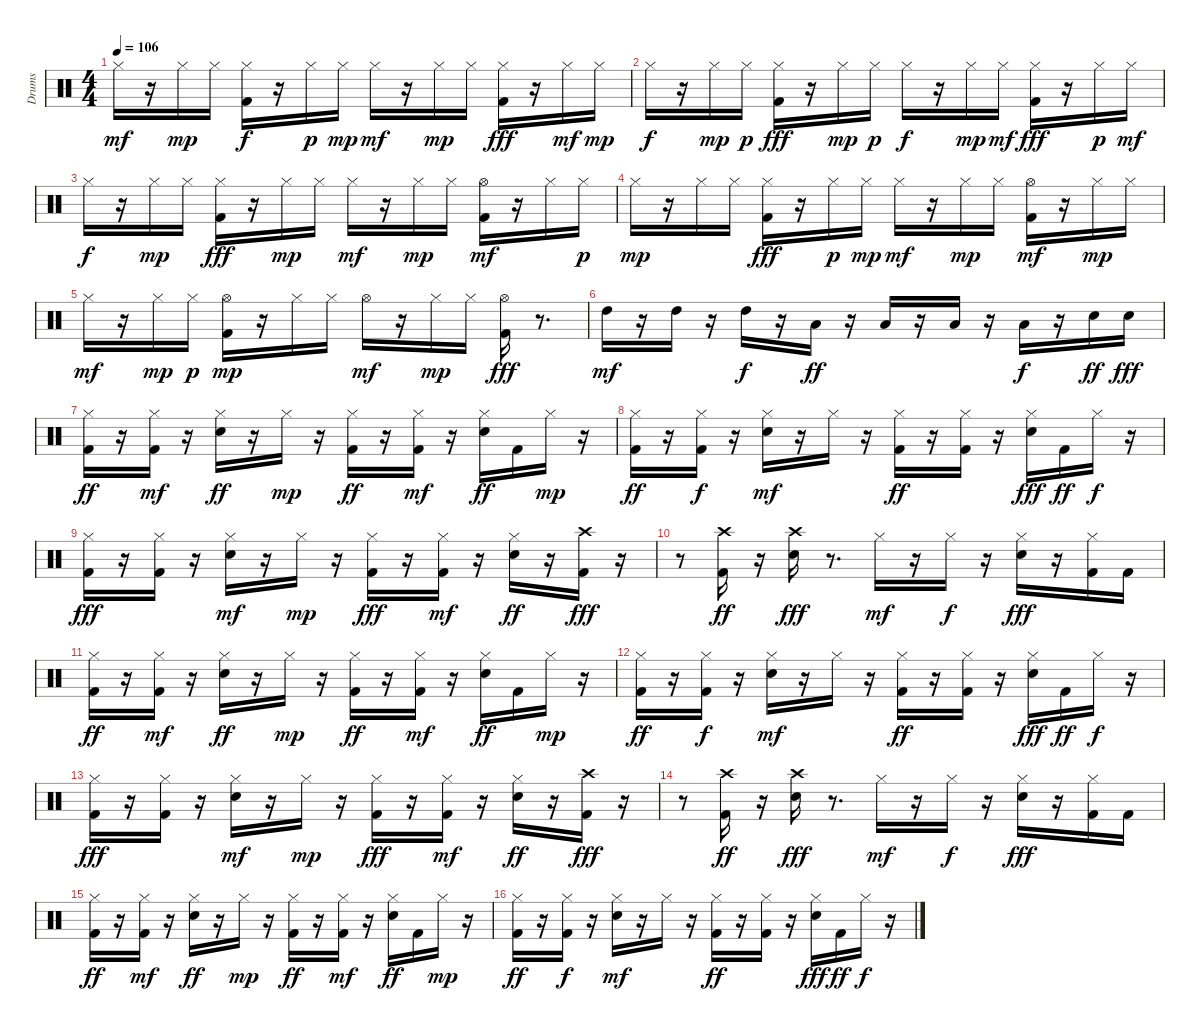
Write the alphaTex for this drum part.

\track ("Drums" "Drums") {instrument percussion}
\staff {score}
\articulation defaults
\ts (4 4)
\tempo 106
\clef neutral
\ks c "Hi-Hat (closed)".16{dy mf}
r.16 "Hi-Hat (closed)".16{dy mp} "Hi-Hat (closed)".16 ("Hi-Hat (closed)" "Kick (hit) 2").16{dy f} r.16 "Hi-Hat (closed)".16{dy p} "Hi-Hat (closed)".16{dy mp} "Hi-Hat (closed)".16{dy mf} r.16 "Hi-Hat (closed)".16{dy mp} "Hi-Hat (closed)".16 ("Kick (hit) 2" "Hi-Hat (closed)").16{dy fff} r.16 "Hi-Hat (closed)".16{dy mf} "Hi-Hat (closed)".16{dy mp} |
"Hi-Hat (closed)".16{dy f} r.16 "Hi-Hat (closed)".16{dy mp} "Hi-Hat (closed)".16{dy p} ("Hi-Hat (closed)" "Kick (hit) 2").16{dy fff} r.16 "Hi-Hat (closed)".16{dy mp} "Hi-Hat (closed)".16{dy p} "Hi-Hat (closed)".16{dy f} r.16 "Hi-Hat (closed)".16{dy mp} "Hi-Hat (closed)".16{dy mf} ("Kick (hit) 2" "Hi-Hat (closed)").16{dy fff} r.16 "Hi-Hat (closed)".16{dy p} "Hi-Hat (closed)".16{dy mf} |
"Hi-Hat (closed)".16{dy f} r.16 "Hi-Hat (closed)".16{dy mp} "Hi-Hat (closed)".16 ("Hi-Hat (closed)" "Kick (hit) 2").16{dy fff} r.16 "Hi-Hat (closed)".16{dy mp} "Hi-Hat (closed)".16 "Hi-Hat (closed)".16{dy mf} r.16 "Hi-Hat (closed)".16{dy mp} "Hi-Hat (closed)".16 ("Kick (hit) 2" "Hi-Hat (open)").16{dy mf} r.16 "Hi-Hat (closed)".16 "Hi-Hat (closed)".16{dy p} |
"Hi-Hat (closed)".16{dy mp} r.16 "Hi-Hat (closed)".16 "Hi-Hat (closed)".16 ("Kick (hit) 2" "Hi-Hat (closed)").16{dy fff} r.16 "Hi-Hat (closed)".16{dy p} "Hi-Hat (closed)".16{dy mp} "Hi-Hat (closed)".16{dy mf} r.16 "Hi-Hat (closed)".16{dy mp} "Hi-Hat (closed)".16 ("Kick (hit) 2" "Hi-Hat (open)").16{dy mf} r.16 "Hi-Hat (closed)".16{dy mp} "Hi-Hat (closed)".16 |
"Hi-Hat (closed)".16{dy mf} r.16 "Hi-Hat (closed)".16{dy mp} "Hi-Hat (closed)".16{dy p} ("Kick (hit) 2" "Hi-Hat (open)").16{dy mp} r.16 "Hi-Hat (closed)".16 "Hi-Hat (closed)".16 "Hi-Hat (open)".16{dy mf} r.16 "Hi-Hat (closed)".16{dy mp} "Hi-Hat (closed)".16 ("Hi-Hat (open)" "Kick (hit) 2").16{dy fff} r.8{d} |
"High Tom (hit)".16{dy mf} r.16 "High Tom (hit)".16 r.16 "High Tom (hit)".16{dy f} r.16 "Low Tom (hit)".16{dy ff} r.16 "Low Tom (hit)".16 r.16 "Low Floor Tom (hit)".16 r.16 "Low Floor Tom (hit)".16{dy f} r.16 "Snare (hit) 2".16{dy ff} "Snare (hit) 2".16{dy fff} |
("Kick (hit) 2" "Hi-Hat (closed)").16{dy ff} r.16 ("Kick (hit) 2" "Hi-Hat (closed)").16{dy mf} r.16 ("Hi-Hat (closed)" "Snare (hit) 2").16{dy ff} r.16 "Hi-Hat (closed)".16{dy mp} r.16 ("Hi-Hat (closed)" "Kick (hit) 2").16{dy ff} r.16 ("Hi-Hat (closed)" "Kick (hit) 2").16{dy mf} r.16 ("Hi-Hat (closed)" "Snare (hit) 2").16{dy ff} "Kick (hit) 2".16 "Hi-Hat (closed)".16{dy mp} r.16 |
("Kick (hit) 2" "Hi-Hat (closed)").16{dy ff} r.16 ("Kick (hit) 2" "Hi-Hat (closed)").16{dy f} r.16 ("Snare (hit) 2" "Hi-Hat (closed)").16{dy mf} r.16 "Hi-Hat (closed)".16 r.16 ("Hi-Hat (closed)" "Kick (hit) 2").16{dy ff} r.16 ("Hi-Hat (closed)" "Kick (hit) 2").16 r.16 ("Snare (hit) 2" "Hi-Hat (closed)").16{dy fff} "Kick (hit) 2".16{dy ff} "Hi-Hat (closed)".16{dy f} r.16 |
("Hi-Hat (closed)" "Kick (hit) 2").16{dy fff} r.16 ("Hi-Hat (closed)" "Kick (hit) 2").16 r.16 ("Snare (hit) 2" "Hi-Hat (closed)").16{dy mf} r.16 "Hi-Hat (closed)".16{dy mp} r.16 ("Hi-Hat (closed)" "Kick (hit) 2").16{dy fff} r.16 ("Hi-Hat (closed)" "Kick (hit) 2").16{dy mf} r.16 ("Hi-Hat (closed)" "Snare (hit) 2").16{dy ff} r.16 ("Crash high (hit)" "Kick (hit) 2").16{dy fff} r.16 |
r.8 ("Crash high (hit)" "Kick (hit) 2").16{dy ff} r.16 ("Crash high (hit)" "Snare (hit) 2").16{dy fff} r.8{d} "Hi-Hat (closed)".16{dy mf} r.16 "Hi-Hat (closed)".16{dy f} r.16 ("Snare (hit) 2" "Hi-Hat (closed)").16{dy fff} r.16 ("Kick (hit) 2" "Hi-Hat (closed)").16 "Kick (hit) 2".16 |
("Kick (hit) 2" "Hi-Hat (closed)").16{dy ff} r.16 ("Kick (hit) 2" "Hi-Hat (closed)").16{dy mf} r.16 ("Hi-Hat (closed)" "Snare (hit) 2").16{dy ff} r.16 "Hi-Hat (closed)".16{dy mp} r.16 ("Hi-Hat (closed)" "Kick (hit) 2").16{dy ff} r.16 ("Hi-Hat (closed)" "Kick (hit) 2").16{dy mf} r.16 ("Hi-Hat (closed)" "Snare (hit) 2").16{dy ff} "Kick (hit) 2".16 "Hi-Hat (closed)".16{dy mp} r.16 |
("Kick (hit) 2" "Hi-Hat (closed)").16{dy ff} r.16 ("Kick (hit) 2" "Hi-Hat (closed)").16{dy f} r.16 ("Snare (hit) 2" "Hi-Hat (closed)").16{dy mf} r.16 "Hi-Hat (closed)".16 r.16 ("Hi-Hat (closed)" "Kick (hit) 2").16{dy ff} r.16 ("Hi-Hat (closed)" "Kick (hit) 2").16 r.16 ("Snare (hit) 2" "Hi-Hat (closed)").16{dy fff} "Kick (hit) 2".16{dy ff} "Hi-Hat (closed)".16{dy f} r.16 |
("Hi-Hat (closed)" "Kick (hit) 2").16{dy fff} r.16 ("Hi-Hat (closed)" "Kick (hit) 2").16 r.16 ("Snare (hit) 2" "Hi-Hat (closed)").16{dy mf} r.16 "Hi-Hat (closed)".16{dy mp} r.16 ("Hi-Hat (closed)" "Kick (hit) 2").16{dy fff} r.16 ("Hi-Hat (closed)" "Kick (hit) 2").16{dy mf} r.16 ("Hi-Hat (closed)" "Snare (hit) 2").16{dy ff} r.16 ("Crash high (hit)" "Kick (hit) 2").16{dy fff} r.16 |
r.8 ("Crash high (hit)" "Kick (hit) 2").16{dy ff} r.16 ("Crash high (hit)" "Snare (hit) 2").16{dy fff} r.8{d} "Hi-Hat (closed)".16{dy mf} r.16 "Hi-Hat (closed)".16{dy f} r.16 ("Snare (hit) 2" "Hi-Hat (closed)").16{dy fff} r.16 ("Kick (hit) 2" "Hi-Hat (closed)").16 "Kick (hit) 2".16 |
("Kick (hit) 2" "Hi-Hat (closed)").16{dy ff} r.16 ("Kick (hit) 2" "Hi-Hat (closed)").16{dy mf} r.16 ("Hi-Hat (closed)" "Snare (hit) 2").16{dy ff} r.16 "Hi-Hat (closed)".16{dy mp} r.16 ("Hi-Hat (closed)" "Kick (hit) 2").16{dy ff} r.16 ("Hi-Hat (closed)" "Kick (hit) 2").16{dy mf} r.16 ("Hi-Hat (closed)" "Snare (hit) 2").16{dy ff} "Kick (hit) 2".16 "Hi-Hat (closed)".16{dy mp} r.16 |
("Kick (hit) 2" "Hi-Hat (closed)").16{dy ff} r.16 ("Kick (hit) 2" "Hi-Hat (closed)").16{dy f} r.16 ("Snare (hit) 2" "Hi-Hat (closed)").16{dy mf} r.16 "Hi-Hat (closed)".16 r.16 ("Hi-Hat (closed)" "Kick (hit) 2").16{dy ff} r.16 ("Hi-Hat (closed)" "Kick (hit) 2").16 r.16 ("Snare (hit) 2" "Hi-Hat (closed)").16{dy fff} "Kick (hit) 2".16{dy ff} "Hi-Hat (closed)".16{dy f} r.16
